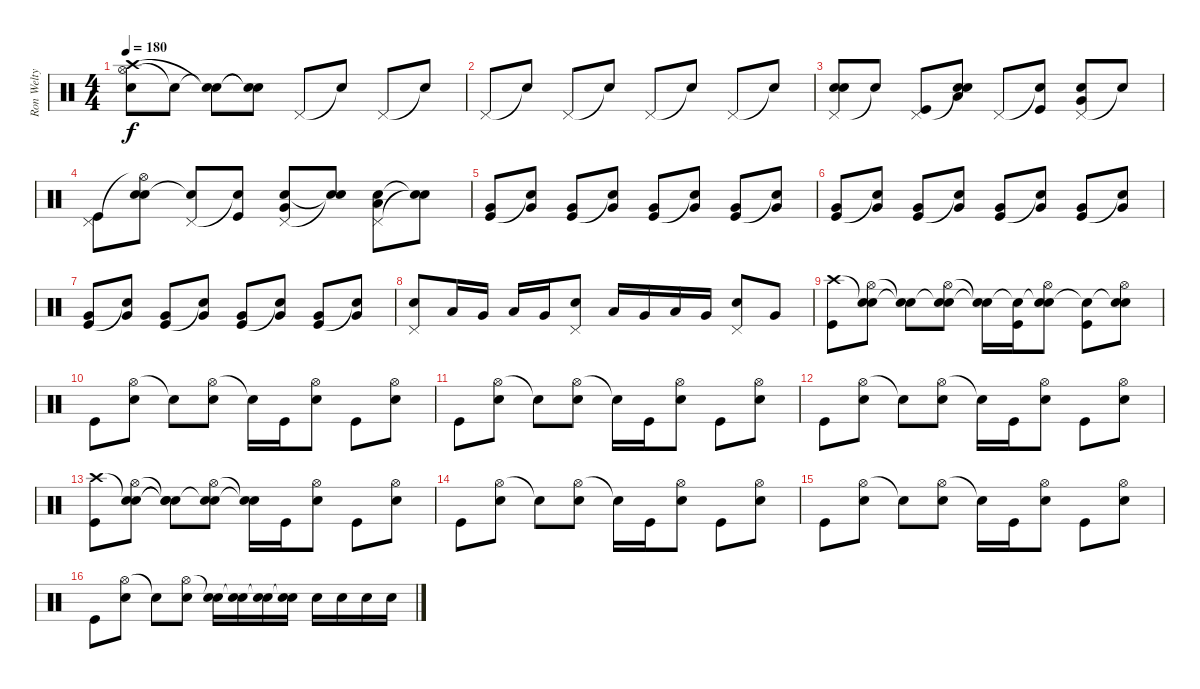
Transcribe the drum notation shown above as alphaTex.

\track ("Ron Welty" "Ron Welty") {instrument percussion}
\staff {score}
\articulation defaults
\ts (4 4)
\tempo 180
\clef neutral
\ks c
("Hi-Hat (open)" "Crash high (hit)" "Electric Snare (hit)").8{dy f} "Snare (hit)"{t}.8 ("Snare (hit)"{t} "Snare (hit)"{t}).8 ("Snare (hit)"{t} "Snare (hit)"{t}).8 "Pedal Hi-Hat (hit)".8{volume 6} "Snare (hit)"{t}.8 "Pedal Hi-Hat (hit)".8 "Snare (hit)"{t}.8 |
"Pedal Hi-Hat (hit)".8 "Snare (hit)"{t}.8 "Pedal Hi-Hat (hit)".8 "Snare (hit)"{t}.8 "Pedal Hi-Hat (hit)".8 "Snare (hit)"{t}.8 "Pedal Hi-Hat (hit)".8 "Snare (hit)"{t}.8 |
("Pedal Hi-Hat (hit)" "Snare (hit) 2" "Electric Snare (hit)").8{volume 10} "Snare (hit)"{t}.8 ("Pedal Hi-Hat (hit)" "Kick (hit)").8 ("Snare (hit)"{t} "Electric Snare (hit)" "Low Tom (hit)").8 "Pedal Hi-Hat (hit)".8 ("Snare (hit)"{t} "Kick (hit)").8 ("Pedal Hi-Hat (hit)" "Very Low Tom (hit)" "Electric Snare (hit)").8 "Snare (hit)"{t}.8 |
("Pedal Hi-Hat (hit)" "Kick (hit)").8 ("Hi-Hat (open)"{t} "Snare (hit) 2" "Electric Snare (hit)").8 ("Pedal Hi-Hat (hit)" "Snare (hit)"{t}).8 ("Snare (hit)"{t} "Kick (hit)").8 ("Pedal Hi-Hat (hit)" "Electric Snare (hit)" "Very Low Tom (hit)").8 ("Snare (hit)"{t} "Snare (hit)"{t}).8 ("Pedal Hi-Hat (hit)" "Electric Snare (hit)" "Low Floor Tom (hit)").8 ("Snare (hit)"{t} "Snare (hit)"{t}).8 |
("Very Low Tom (hit)" "Kick (hit)").8{volume 9} ("Very Low Tom (hit)" "Snare (hit)"{t}).8 ("Very Low Tom (hit)" "Kick (hit)").8 ("Very Low Tom (hit)" "Snare (hit)"{t}).8{volume 10} ("Very Low Tom (hit)" "Kick (hit)").8 ("Very Low Tom (hit)" "Snare (hit)"{t}).8{volume 11} ("Very Low Tom (hit)" "Kick (hit)").8 ("Very Low Tom (hit)" "Snare (hit)"{t}).8 |
("Very Low Tom (hit)" "Kick (hit)").8{volume 12} ("Very Low Tom (hit)" "Snare (hit)"{t}).8 ("Very Low Tom (hit)" "Kick (hit)").8 ("Very Low Tom (hit)" "Snare (hit)"{t}).8{volume 13} ("Very Low Tom (hit)" "Kick (hit)").8 ("Very Low Tom (hit)" "Snare (hit)"{t}).8 ("Very Low Tom (hit)" "Kick (hit)").8 ("Very Low Tom (hit)" "Snare (hit)"{t}).8 |
("Very Low Tom (hit)" "Kick (hit)").8{volume 14} ("Very Low Tom (hit)" "Snare (hit)"{t}).8 ("Very Low Tom (hit)" "Kick (hit)").8 ("Very Low Tom (hit)" "Snare (hit)"{t}).8 ("Very Low Tom (hit)" "Kick (hit)").8 ("Very Low Tom (hit)" "Snare (hit)"{t}).8 ("Very Low Tom (hit)" "Kick (hit)").8 ("Very Low Tom (hit)" "Snare (hit)"{t}).8 |
("Pedal Hi-Hat (hit)" "Electric Snare (hit)").8 "Low Tom (hit)".16 "Very Low Tom (hit)".16 "Low Floor Tom (hit)".16 "Very Low Tom (hit)".16 ("Pedal Hi-Hat (hit)" "Electric Snare (hit)").8 "Low Tom (hit)".16 "Very Low Tom (hit)".16 "Low Floor Tom (hit)".16 "Very Low Tom (hit)".16 ("Pedal Hi-Hat (hit)" "Electric Snare (hit)").8 "Very Low Tom (hit)".8 |
("Crash high (hit)" "Kick (hit)").8 ("Snare (hit)"{t} "Hi-Hat (open)" "Electric Snare (hit)").8 ("Snare (hit)"{t} "Snare (hit)"{t}).8 ("Snare (hit)"{t} "Hi-Hat (open)" "Electric Snare (hit)").8 ("Snare (hit)"{t} "Snare (hit)"{t}).16 ("Snare (hit)"{t} "Kick (hit)").16 ("Snare (hit)"{t} "Hi-Hat (open)" "Electric Snare (hit)").8 ("Snare (hit)"{t} "Kick (hit)").8 ("Snare (hit)"{t} "Hi-Hat (open)" "Electric Snare (hit)").8 |
"Kick (hit)".8 ("Hi-Hat (open)" "Electric Snare (hit)").8 "Snare (hit)"{t}.8 ("Hi-Hat (open)" "Electric Snare (hit)").8 "Snare (hit)"{t}.16 "Kick (hit)".16 ("Hi-Hat (open)" "Electric Snare (hit)").8 "Kick (hit)".8 ("Hi-Hat (open)" "Electric Snare (hit)").8 |
"Kick (hit)".8 ("Hi-Hat (open)" "Electric Snare (hit)").8 "Snare (hit)"{t}.8 ("Hi-Hat (open)" "Electric Snare (hit)").8 "Snare (hit)"{t}.16 "Kick (hit)".16 ("Hi-Hat (open)" "Electric Snare (hit)").8 "Kick (hit)".8 ("Hi-Hat (open)" "Electric Snare (hit)").8 |
"Kick (hit)".8 ("Hi-Hat (open)" "Electric Snare (hit)").8 "Snare (hit)"{t}.8 ("Hi-Hat (open)" "Electric Snare (hit)").8 "Snare (hit)"{t}.16 "Kick (hit)".16 ("Hi-Hat (open)" "Electric Snare (hit)").8 "Kick (hit)".8 ("Hi-Hat (open)" "Electric Snare (hit)").8 |
("Crash high (hit)" "Kick (hit)").8 ("Snare (hit)"{t} "Hi-Hat (open)" "Electric Snare (hit)").8 ("Snare (hit)"{t} "Snare (hit)"{t} "Snare (hit)"{t}).8 ("Snare (hit)"{t} "Hi-Hat (open)" "Electric Snare (hit)").8 ("Snare (hit)"{t} "Snare (hit)"{t}).16 "Kick (hit)".16 ("Hi-Hat (open)" "Electric Snare (hit)").8 "Kick (hit)".8 ("Hi-Hat (open)" "Electric Snare (hit)").8 |
"Kick (hit)".8 ("Hi-Hat (open)" "Electric Snare (hit)").8 "Snare (hit)"{t}.8 ("Hi-Hat (open)" "Electric Snare (hit)").8 "Snare (hit)"{t}.16 "Kick (hit)".16 ("Hi-Hat (open)" "Electric Snare (hit)").8 "Kick (hit)".8 ("Hi-Hat (open)" "Electric Snare (hit)").8 |
"Kick (hit)".8 ("Hi-Hat (open)" "Electric Snare (hit)").8 "Snare (hit)"{t}.8 ("Hi-Hat (open)" "Electric Snare (hit)").8 "Snare (hit)"{t}.16 "Kick (hit)".16 ("Hi-Hat (open)" "Electric Snare (hit)").8 "Kick (hit)".8 ("Hi-Hat (open)" "Electric Snare (hit)").8 |
"Kick (hit)".8 ("Hi-Hat (open)" "Electric Snare (hit)").8 "Snare (hit)"{t}.8 ("Hi-Hat (open)" "Electric Snare (hit)").8 ("Snare (hit)"{t} "Electric Snare (hit)").16 ("Snare (hit)"{t} "Electric Snare (hit)").16 ("Snare (hit)"{t} "Electric Snare (hit)").16 ("Snare (hit)"{t} "Electric Snare (hit)").16 "Electric Snare (hit)".16 "Electric Snare (hit)".16 "Electric Snare (hit)".16 "Electric Snare (hit)".16
